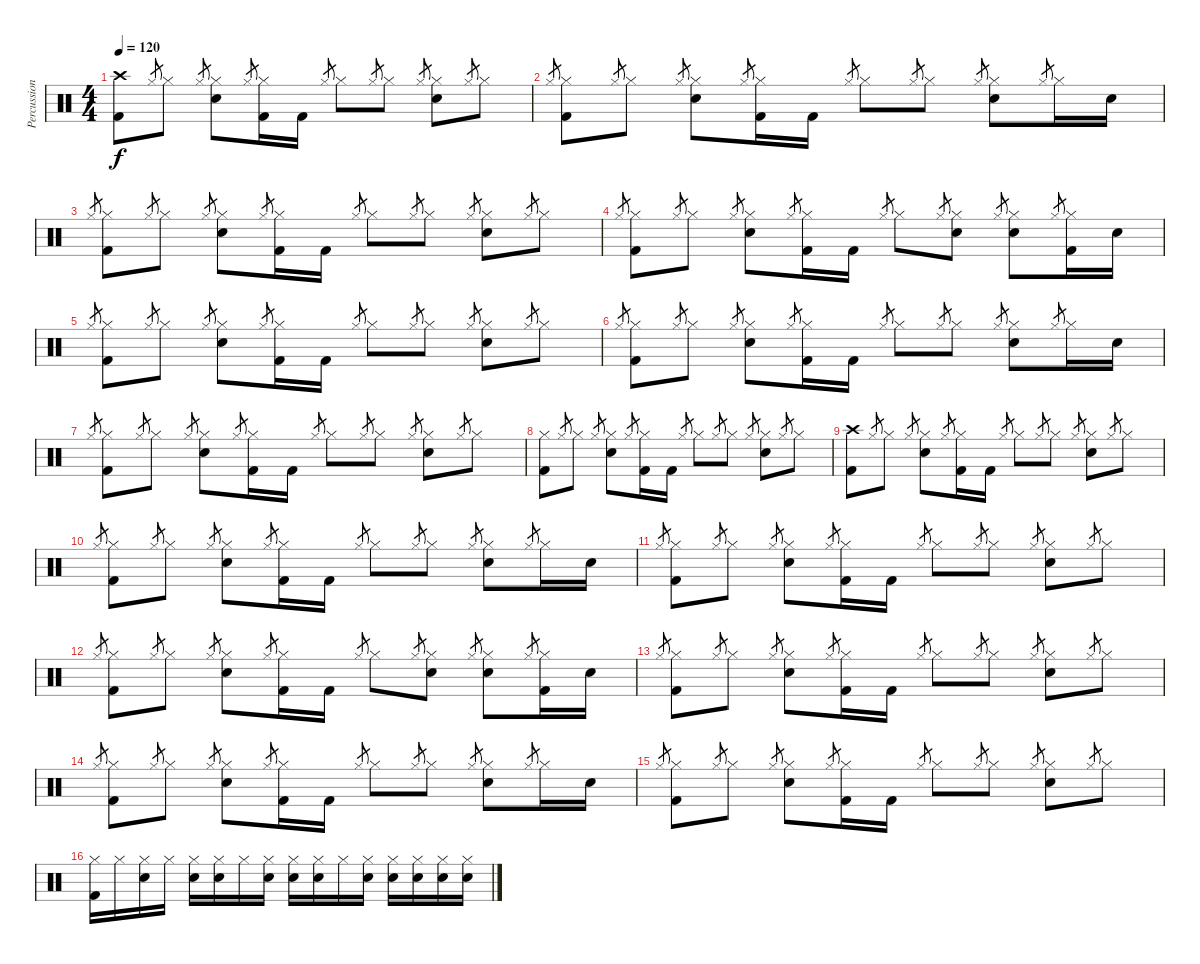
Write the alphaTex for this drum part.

\track ("Percussion" "Percussion") {instrument percussion}
\staff {score}
\articulation defaults
\ts (4 4)
\tempo 120
\clef neutral
\ks c
("Crash high (hit)" "Kick (hit) 2").8{dy f} "Hi-Hat (closed)".8{gr} "Hi-Hat (closed)".8 "Hi-Hat (closed)".8{gr} ("Hi-Hat (closed)" "Snare (hit) 2").8 "Hi-Hat (closed)".8{gr} ("Hi-Hat (closed)" "Kick (hit) 2").16 "Kick (hit) 2".16 "Hi-Hat (closed)".8{gr} "Hi-Hat (closed)".8 "Hi-Hat (closed)".8{gr} "Hi-Hat (closed)".8 "Hi-Hat (closed)".8{gr} ("Hi-Hat (closed)" "Snare (hit) 2").8 "Hi-Hat (closed)".8{gr} "Hi-Hat (closed)".8 |
"Hi-Hat (closed)".8{gr} ("Hi-Hat (closed)" "Kick (hit) 2").8 "Hi-Hat (closed)".8{gr} "Hi-Hat (closed)".8 "Hi-Hat (closed)".8{gr} ("Hi-Hat (closed)" "Snare (hit) 2").8 "Hi-Hat (closed)".8{gr} ("Hi-Hat (closed)" "Kick (hit) 2").16 "Kick (hit) 2".16 "Hi-Hat (closed)".8{gr} "Hi-Hat (closed)".8 "Hi-Hat (closed)".8{gr} "Hi-Hat (closed)".8 "Hi-Hat (closed)".8{gr} ("Hi-Hat (closed)" "Snare (hit) 2").8 "Hi-Hat (closed)".8{gr} "Hi-Hat (closed)".16 "Snare (hit) 2".16 |
"Hi-Hat (closed)".8{gr} ("Hi-Hat (closed)" "Kick (hit) 2").8 "Hi-Hat (closed)".8{gr} "Hi-Hat (closed)".8 "Hi-Hat (closed)".8{gr} ("Hi-Hat (closed)" "Snare (hit) 2").8 "Hi-Hat (closed)".8{gr} ("Hi-Hat (closed)" "Kick (hit) 2").16 "Kick (hit) 2".16 "Hi-Hat (closed)".8{gr} "Hi-Hat (closed)".8 "Hi-Hat (closed)".8{gr} "Hi-Hat (closed)".8 "Hi-Hat (closed)".8{gr} ("Hi-Hat (closed)" "Snare (hit) 2").8 "Hi-Hat (closed)".8{gr} "Hi-Hat (closed)".8 |
"Hi-Hat (closed)".8{gr} ("Hi-Hat (closed)" "Kick (hit) 2").8 "Hi-Hat (closed)".8{gr} "Hi-Hat (closed)".8 "Hi-Hat (closed)".8{gr} ("Hi-Hat (closed)" "Snare (hit) 2").8 "Hi-Hat (closed)".8{gr} ("Hi-Hat (closed)" "Kick (hit) 2").16 "Kick (hit) 2".16 "Hi-Hat (closed)".8{gr} "Hi-Hat (closed)".8 "Hi-Hat (closed)".8{gr} ("Hi-Hat (closed)" "Snare (hit) 2").8 "Hi-Hat (closed)".8{gr} ("Hi-Hat (closed)" "Snare (hit) 2").8 "Hi-Hat (closed)".8{gr} ("Hi-Hat (closed)" "Kick (hit) 2").16 "Snare (hit) 2".16 |
"Hi-Hat (closed)".8{gr} ("Hi-Hat (closed)" "Kick (hit) 2").8 "Hi-Hat (closed)".8{gr} "Hi-Hat (closed)".8 "Hi-Hat (closed)".8{gr} ("Hi-Hat (closed)" "Snare (hit) 2").8 "Hi-Hat (closed)".8{gr} ("Hi-Hat (closed)" "Kick (hit) 2").16 "Kick (hit) 2".16 "Hi-Hat (closed)".8{gr} "Hi-Hat (closed)".8 "Hi-Hat (closed)".8{gr} "Hi-Hat (closed)".8 "Hi-Hat (closed)".8{gr} ("Hi-Hat (closed)" "Snare (hit) 2").8 "Hi-Hat (closed)".8{gr} "Hi-Hat (closed)".8 |
"Hi-Hat (closed)".8{gr} ("Hi-Hat (closed)" "Kick (hit) 2").8 "Hi-Hat (closed)".8{gr} "Hi-Hat (closed)".8 "Hi-Hat (closed)".8{gr} ("Hi-Hat (closed)" "Snare (hit) 2").8 "Hi-Hat (closed)".8{gr} ("Hi-Hat (closed)" "Kick (hit) 2").16 "Kick (hit) 2".16 "Hi-Hat (closed)".8{gr} "Hi-Hat (closed)".8 "Hi-Hat (closed)".8{gr} "Hi-Hat (closed)".8 "Hi-Hat (closed)".8{gr} ("Hi-Hat (closed)" "Snare (hit) 2").8 "Hi-Hat (closed)".8{gr} "Hi-Hat (closed)".16 "Snare (hit) 2".16 |
"Hi-Hat (closed)".8{gr} ("Hi-Hat (closed)" "Kick (hit) 2").8 "Hi-Hat (closed)".8{gr} "Hi-Hat (closed)".8 "Hi-Hat (closed)".8{gr} ("Hi-Hat (closed)" "Snare (hit) 2").8 "Hi-Hat (closed)".8{gr} ("Hi-Hat (closed)" "Kick (hit) 2").16 "Kick (hit) 2".16 "Hi-Hat (closed)".8{gr} "Hi-Hat (closed)".8 "Hi-Hat (closed)".8{gr} "Hi-Hat (closed)".8 "Hi-Hat (closed)".8{gr} ("Hi-Hat (closed)" "Snare (hit) 2").8 "Hi-Hat (closed)".8{gr} "Hi-Hat (closed)".8 |
("Hi-Hat (closed)" "Kick (hit) 2").8 "Hi-Hat (closed)".8{gr} "Hi-Hat (closed)".8 "Hi-Hat (closed)".8{gr} ("Hi-Hat (closed)" "Snare (hit) 2").8 "Hi-Hat (closed)".8{gr} ("Hi-Hat (closed)" "Kick (hit) 2").16 "Kick (hit) 2".16 "Hi-Hat (closed)".8{gr} "Hi-Hat (closed)".8 "Hi-Hat (closed)".8{gr} "Hi-Hat (closed)".8 "Hi-Hat (closed)".8{gr} ("Hi-Hat (closed)" "Snare (hit) 2").8 "Hi-Hat (closed)".8{gr} "Hi-Hat (closed)".8 |
("Crash high (hit)" "Kick (hit) 2").8 "Hi-Hat (closed)".8{gr} "Hi-Hat (closed)".8 "Hi-Hat (closed)".8{gr} ("Hi-Hat (closed)" "Snare (hit) 2").8 "Hi-Hat (closed)".8{gr} ("Hi-Hat (closed)" "Kick (hit) 2").16 "Kick (hit) 2".16 "Hi-Hat (closed)".8{gr} "Hi-Hat (closed)".8 "Hi-Hat (closed)".8{gr} "Hi-Hat (closed)".8 "Hi-Hat (closed)".8{gr} ("Hi-Hat (closed)" "Snare (hit) 2").8 "Hi-Hat (closed)".8{gr} "Hi-Hat (closed)".8 |
"Hi-Hat (closed)".8{gr} ("Hi-Hat (closed)" "Kick (hit) 2").8 "Hi-Hat (closed)".8{gr} "Hi-Hat (closed)".8 "Hi-Hat (closed)".8{gr} ("Hi-Hat (closed)" "Snare (hit) 2").8 "Hi-Hat (closed)".8{gr} ("Hi-Hat (closed)" "Kick (hit) 2").16 "Kick (hit) 2".16 "Hi-Hat (closed)".8{gr} "Hi-Hat (closed)".8 "Hi-Hat (closed)".8{gr} "Hi-Hat (closed)".8 "Hi-Hat (closed)".8{gr} ("Hi-Hat (closed)" "Snare (hit) 2").8 "Hi-Hat (closed)".8{gr} "Hi-Hat (closed)".16 "Snare (hit) 2".16 |
"Hi-Hat (closed)".8{gr} ("Hi-Hat (closed)" "Kick (hit) 2").8 "Hi-Hat (closed)".8{gr} "Hi-Hat (closed)".8 "Hi-Hat (closed)".8{gr} ("Hi-Hat (closed)" "Snare (hit) 2").8 "Hi-Hat (closed)".8{gr} ("Hi-Hat (closed)" "Kick (hit) 2").16 "Kick (hit) 2".16 "Hi-Hat (closed)".8{gr} "Hi-Hat (closed)".8 "Hi-Hat (closed)".8{gr} "Hi-Hat (closed)".8 "Hi-Hat (closed)".8{gr} ("Hi-Hat (closed)" "Snare (hit) 2").8 "Hi-Hat (closed)".8{gr} "Hi-Hat (closed)".8 |
"Hi-Hat (closed)".8{gr} ("Hi-Hat (closed)" "Kick (hit) 2").8 "Hi-Hat (closed)".8{gr} "Hi-Hat (closed)".8 "Hi-Hat (closed)".8{gr} ("Hi-Hat (closed)" "Snare (hit) 2").8 "Hi-Hat (closed)".8{gr} ("Hi-Hat (closed)" "Kick (hit) 2").16 "Kick (hit) 2".16 "Hi-Hat (closed)".8{gr} "Hi-Hat (closed)".8 "Hi-Hat (closed)".8{gr} ("Hi-Hat (closed)" "Snare (hit) 2").8 "Hi-Hat (closed)".8{gr} ("Hi-Hat (closed)" "Snare (hit) 2").8 "Hi-Hat (closed)".8{gr} ("Hi-Hat (closed)" "Kick (hit) 2").16 "Snare (hit) 2".16 |
"Hi-Hat (closed)".8{gr} ("Hi-Hat (closed)" "Kick (hit) 2").8 "Hi-Hat (closed)".8{gr} "Hi-Hat (closed)".8 "Hi-Hat (closed)".8{gr} ("Hi-Hat (closed)" "Snare (hit) 2").8 "Hi-Hat (closed)".8{gr} ("Hi-Hat (closed)" "Kick (hit) 2").16 "Kick (hit) 2".16 "Hi-Hat (closed)".8{gr} "Hi-Hat (closed)".8 "Hi-Hat (closed)".8{gr} "Hi-Hat (closed)".8 "Hi-Hat (closed)".8{gr} ("Hi-Hat (closed)" "Snare (hit) 2").8 "Hi-Hat (closed)".8{gr} "Hi-Hat (closed)".8 |
"Hi-Hat (closed)".8{gr} ("Hi-Hat (closed)" "Kick (hit) 2").8 "Hi-Hat (closed)".8{gr} "Hi-Hat (closed)".8 "Hi-Hat (closed)".8{gr} ("Hi-Hat (closed)" "Snare (hit) 2").8 "Hi-Hat (closed)".8{gr} ("Hi-Hat (closed)" "Kick (hit) 2").16 "Kick (hit) 2".16 "Hi-Hat (closed)".8{gr} "Hi-Hat (closed)".8 "Hi-Hat (closed)".8{gr} "Hi-Hat (closed)".8 "Hi-Hat (closed)".8{gr} ("Hi-Hat (closed)" "Snare (hit) 2").8 "Hi-Hat (closed)".8{gr} "Hi-Hat (closed)".16 "Snare (hit) 2".16 |
"Hi-Hat (closed)".8{gr} ("Hi-Hat (closed)" "Kick (hit) 2").8 "Hi-Hat (closed)".8{gr} "Hi-Hat (closed)".8 "Hi-Hat (closed)".8{gr} ("Hi-Hat (closed)" "Snare (hit) 2").8 "Hi-Hat (closed)".8{gr} ("Hi-Hat (closed)" "Kick (hit) 2").16 "Kick (hit) 2".16 "Hi-Hat (closed)".8{gr} "Hi-Hat (closed)".8 "Hi-Hat (closed)".8{gr} "Hi-Hat (closed)".8 "Hi-Hat (closed)".8{gr} ("Hi-Hat (closed)" "Snare (hit) 2").8 "Hi-Hat (closed)".8{gr} "Hi-Hat (closed)".8 |
("Hi-Hat (closed)" "Kick (hit) 2").16 "Hi-Hat (closed)".16 ("Hi-Hat (closed)" "Snare (hit) 2").16 "Hi-Hat (closed)".16 ("Hi-Hat (closed)" "Snare (hit) 2").16 ("Hi-Hat (closed)" "Snare (hit) 2").16 "Hi-Hat (closed)".16 ("Hi-Hat (closed)" "Snare (hit) 2").16 ("Hi-Hat (closed)" "Snare (hit) 2").16 ("Hi-Hat (closed)" "Snare (hit) 2").16 "Hi-Hat (closed)".16 ("Hi-Hat (closed)" "Snare (hit) 2").16 ("Hi-Hat (closed)" "Snare (hit) 2").16 ("Hi-Hat (closed)" "Snare (hit) 2").16 ("Hi-Hat (closed)" "Snare (hit) 2").16 ("Hi-Hat (closed)" "Snare (hit) 2").16
